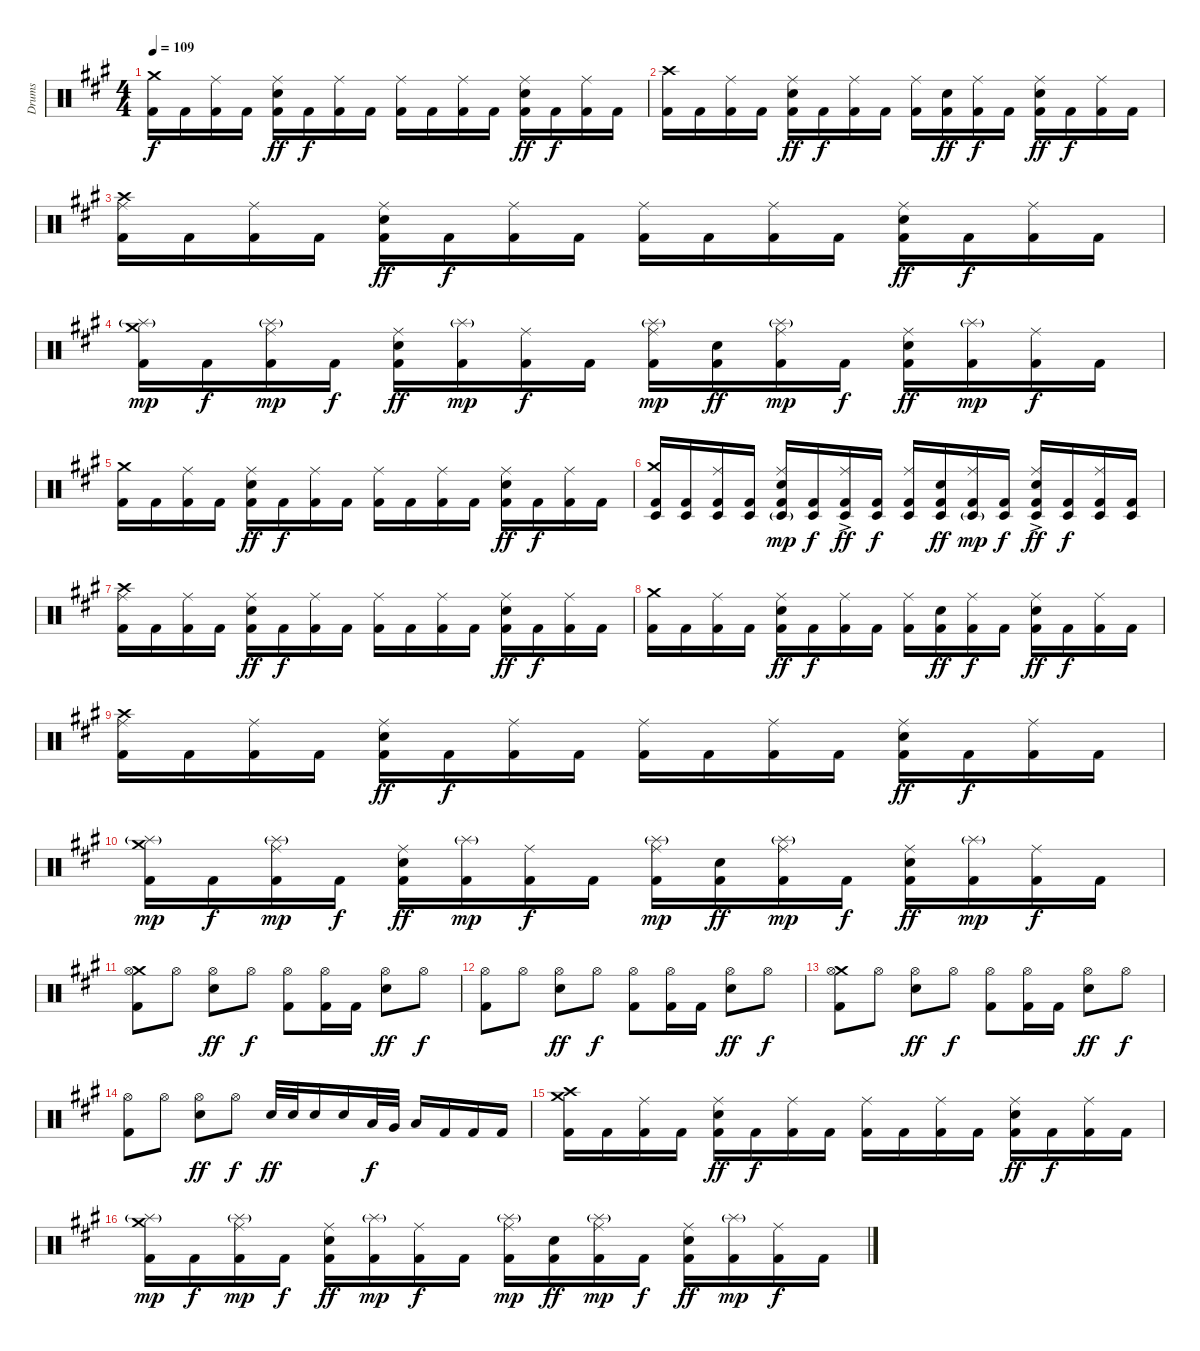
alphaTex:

\track ("Drums" "Drums") {instrument percussion}
\staff {score}
\articulation defaults
\ts (4 4)
\tempo 109
\clef neutral
\ks f#minor
("Crash medium (hit)" "Kick (hit) 2").16{dy f} "Kick (hit) 2".16 ("Ride (middle)" "Kick (hit) 2").16 "Kick (hit) 2".16 ("Ride (middle)" "Electric Snare (hit)" "Kick (hit) 2").16{dy ff} "Kick (hit) 2".16{dy f} ("Ride (middle)" "Kick (hit) 2").16 "Kick (hit) 2".16 ("Ride (middle)" "Kick (hit) 2").16 "Kick (hit) 2".16 ("Ride (middle)" "Kick (hit) 2").16 "Kick (hit) 2".16 ("Ride (middle)" "Electric Snare (hit)" "Kick (hit) 2").16{dy ff} "Kick (hit) 2".16{dy f} ("Ride (middle)" "Kick (hit) 2").16 "Kick (hit) 2".16 |
("Crash high (hit)" "Kick (hit) 2").16 "Kick (hit) 2".16 ("Ride (middle)" "Kick (hit) 2").16 "Kick (hit) 2".16 ("Ride (middle)" "Electric Snare (hit)" "Kick (hit) 2").16{dy ff} "Kick (hit) 2".16{dy f} ("Ride (middle)" "Kick (hit) 2").16 "Kick (hit) 2".16 ("Ride (middle)" "Kick (hit) 2").16 ("Electric Snare (hit)" "Kick (hit) 2").16{dy ff} ("Ride (middle)" "Kick (hit) 2").16{dy f} "Kick (hit) 2".16 ("Ride (middle)" "Electric Snare (hit)" "Kick (hit) 2").16{dy ff} "Kick (hit) 2".16{dy f} ("Ride (middle)" "Kick (hit) 2").16 "Kick (hit) 2".16 |
("Ride (middle)" "Crash high (hit)" "Kick (hit) 2").16 "Kick (hit) 2".16 ("Ride (middle)" "Kick (hit) 2").16 "Kick (hit) 2".16 ("Ride (middle)" "Electric Snare (hit)" "Kick (hit) 2").16{dy ff} "Kick (hit) 2".16{dy f} ("Ride (middle)" "Kick (hit) 2").16 "Kick (hit) 2".16 ("Ride (middle)" "Kick (hit) 2").16 "Kick (hit) 2".16 ("Ride (middle)" "Kick (hit) 2").16 "Kick (hit) 2".16 ("Ride (middle)" "Electric Snare (hit)" "Kick (hit) 2").16{dy ff} "Kick (hit) 2".16{dy f} ("Ride (middle)" "Kick (hit) 2").16 "Kick (hit) 2".16 |
("Crash medium (hit)" "Splash (hit)"{g} "Kick (hit) 2").16{dy mp} "Kick (hit) 2".16{dy f} ("Ride (middle)" "Splash (hit)"{g} "Kick (hit) 2").16{dy mp} "Kick (hit) 2".16{dy f} ("Ride (middle)" "Electric Snare (hit)" "Kick (hit) 2").16{dy ff} ("Splash (hit)"{g} "Kick (hit) 2").16{dy mp} ("Ride (middle)" "Kick (hit) 2").16{dy f} "Kick (hit) 2".16 ("Ride (middle)" "Splash (hit)"{g} "Kick (hit) 2").16{dy mp} ("Electric Snare (hit)" "Kick (hit) 2").16{dy ff} ("Ride (middle)" "Splash (hit)"{g} "Kick (hit) 2").16{dy mp} "Kick (hit) 2".16{dy f} ("Ride (middle)" "Electric Snare (hit)" "Kick (hit) 2").16{dy ff} ("Splash (hit)"{g} "Kick (hit) 2").16{dy mp} ("Ride (middle)" "Kick (hit) 2").16{dy f} "Kick (hit) 2".16 |
("Crash medium (hit)" "Kick (hit) 2").16 "Kick (hit) 2".16 ("Ride (middle)" "Kick (hit) 2").16 "Kick (hit) 2".16 ("Ride (middle)" "Electric Snare (hit)" "Kick (hit) 2").16{dy ff} "Kick (hit) 2".16{dy f} ("Ride (middle)" "Kick (hit) 2").16 "Kick (hit) 2".16 ("Ride (middle)" "Kick (hit) 2").16 "Kick (hit) 2".16 ("Ride (middle)" "Kick (hit) 2").16 "Kick (hit) 2".16 ("Ride (middle)" "Electric Snare (hit)" "Kick (hit) 2").16{dy ff} "Kick (hit) 2".16{dy f} ("Ride (middle)" "Kick (hit) 2").16 "Kick (hit) 2".16 |
("Crash medium (hit)" "Timbale low (hit)" "Kick (hit) 2").16 ("Timbale low (hit)" "Kick (hit) 2").16 ("Ride (middle)" "Timbale low (hit)" "Kick (hit) 2").16 ("Timbale low (hit)" "Kick (hit) 2").16 ("Ride (middle)" "Electric Snare (hit)" "Timbale low (hit)"{g} "Kick (hit) 2").16{dy mp} ("Timbale low (hit)" "Kick (hit) 2").16{dy f} ("Ride (middle)" "Timbale low (hit)"{ac} "Kick (hit) 2").16{dy ff} ("Timbale low (hit)" "Kick (hit) 2").16{dy f} ("Ride (middle)" "Timbale low (hit)" "Kick (hit) 2").16 ("Electric Snare (hit)" "Timbale low (hit)" "Kick (hit) 2").16{dy ff} ("Ride (middle)" "Timbale low (hit)"{g} "Kick (hit) 2").16{dy mp} ("Timbale low (hit)" "Kick (hit) 2").16{dy f} ("Ride (middle)" "Electric Snare (hit)" "Timbale low (hit)"{ac} "Kick (hit) 2").16{dy ff} ("Timbale low (hit)" "Kick (hit) 2").16{dy f} ("Ride (middle)" "Timbale low (hit)" "Kick (hit) 2").16 ("Timbale low (hit)" "Kick (hit) 2").16 |
("Ride (middle)" "Crash high (hit)" "Kick (hit) 2").16 "Kick (hit) 2".16 ("Ride (middle)" "Kick (hit) 2").16 "Kick (hit) 2".16 ("Ride (middle)" "Electric Snare (hit)" "Kick (hit) 2").16{dy ff} "Kick (hit) 2".16{dy f} ("Ride (middle)" "Kick (hit) 2").16 "Kick (hit) 2".16 ("Ride (middle)" "Kick (hit) 2").16 "Kick (hit) 2".16 ("Ride (middle)" "Kick (hit) 2").16 "Kick (hit) 2".16 ("Ride (middle)" "Electric Snare (hit)" "Kick (hit) 2").16{dy ff} "Kick (hit) 2".16{dy f} ("Ride (middle)" "Kick (hit) 2").16 "Kick (hit) 2".16 |
("Crash medium (hit)" "Kick (hit) 2").16 "Kick (hit) 2".16 ("Ride (middle)" "Kick (hit) 2").16 "Kick (hit) 2".16 ("Ride (middle)" "Electric Snare (hit)" "Kick (hit) 2").16{dy ff} "Kick (hit) 2".16{dy f} ("Ride (middle)" "Kick (hit) 2").16 "Kick (hit) 2".16 ("Ride (middle)" "Kick (hit) 2").16 ("Electric Snare (hit)" "Kick (hit) 2").16{dy ff} ("Ride (middle)" "Kick (hit) 2").16{dy f} "Kick (hit) 2".16 ("Ride (middle)" "Electric Snare (hit)" "Kick (hit) 2").16{dy ff} "Kick (hit) 2".16{dy f} ("Ride (middle)" "Kick (hit) 2").16 "Kick (hit) 2".16 |
("Ride (middle)" "Crash high (hit)" "Kick (hit) 2").16 "Kick (hit) 2".16 ("Ride (middle)" "Kick (hit) 2").16 "Kick (hit) 2".16 ("Ride (middle)" "Electric Snare (hit)" "Kick (hit) 2").16{dy ff} "Kick (hit) 2".16{dy f} ("Ride (middle)" "Kick (hit) 2").16 "Kick (hit) 2".16 ("Ride (middle)" "Kick (hit) 2").16 "Kick (hit) 2".16 ("Ride (middle)" "Kick (hit) 2").16 "Kick (hit) 2".16 ("Ride (middle)" "Electric Snare (hit)" "Kick (hit) 2").16{dy ff} "Kick (hit) 2".16{dy f} ("Ride (middle)" "Kick (hit) 2").16 "Kick (hit) 2".16 |
("Crash medium (hit)" "Splash (hit)"{g} "Kick (hit) 2").16{dy mp} "Kick (hit) 2".16{dy f} ("Ride (middle)" "Splash (hit)"{g} "Kick (hit) 2").16{dy mp} "Kick (hit) 2".16{dy f} ("Ride (middle)" "Electric Snare (hit)" "Kick (hit) 2").16{dy ff} ("Splash (hit)"{g} "Kick (hit) 2").16{dy mp} ("Ride (middle)" "Kick (hit) 2").16{dy f} "Kick (hit) 2".16 ("Ride (middle)" "Splash (hit)"{g} "Kick (hit) 2").16{dy mp} ("Electric Snare (hit)" "Kick (hit) 2").16{dy ff} ("Ride (middle)" "Splash (hit)"{g} "Kick (hit) 2").16{dy mp} "Kick (hit) 2".16{dy f} ("Ride (middle)" "Electric Snare (hit)" "Kick (hit) 2").16{dy ff} ("Splash (hit)"{g} "Kick (hit) 2").16{dy mp} ("Ride (middle)" "Kick (hit) 2").16{dy f} "Kick (hit) 2".16 |
("Crash medium (hit)" "Hi-Hat (open)" "Kick (hit) 2").8 "Hi-Hat (open)".8 ("Hi-Hat (open)" "Electric Snare (hit)").8{dy ff} "Hi-Hat (open)".8{dy f} ("Hi-Hat (open)" "Kick (hit) 2").8 ("Hi-Hat (open)" "Kick (hit) 2").16 "Kick (hit) 2".16 ("Hi-Hat (open)" "Electric Snare (hit)").8{dy ff} "Hi-Hat (open)".8{dy f} |
("Hi-Hat (open)" "Kick (hit) 2").8 "Hi-Hat (open)".8 ("Hi-Hat (open)" "Electric Snare (hit)").8{dy ff} "Hi-Hat (open)".8{dy f} ("Hi-Hat (open)" "Kick (hit) 2").8 ("Hi-Hat (open)" "Kick (hit) 2").16 "Kick (hit) 2".16 ("Hi-Hat (open)" "Electric Snare (hit)").8{dy ff} "Hi-Hat (open)".8{dy f} |
("Crash medium (hit)" "Hi-Hat (open)" "Kick (hit) 2").8 "Hi-Hat (open)".8 ("Hi-Hat (open)" "Electric Snare (hit)").8{dy ff} "Hi-Hat (open)".8{dy f} ("Hi-Hat (open)" "Kick (hit) 2").8 ("Hi-Hat (open)" "Kick (hit) 2").16 "Kick (hit) 2".16 ("Hi-Hat (open)" "Electric Snare (hit)").8{dy ff} "Hi-Hat (open)".8{dy f} |
("Hi-Hat (open)" "Kick (hit) 2").8 "Hi-Hat (open)".8 ("Hi-Hat (open)" "Electric Snare (hit)").8{dy ff} "Hi-Hat (open)".8{dy f} "Electric Snare (hit)".32{dy ff} "Electric Snare (hit)".32 "Electric Snare (hit)".16 "Electric Snare (hit)".16 "Low Tom (hit)".32{dy f} "Very Low Tom (hit)".32 "Low Floor Tom (hit)".16 "Kick (hit) 2".16 "Kick (hit) 2".16 "Kick (hit) 2".16 |
("Crash medium (hit)" "Crash high (hit)" "Kick (hit) 2").16 "Kick (hit) 2".16 ("Ride (middle)" "Kick (hit) 2").16 "Kick (hit) 2".16 ("Ride (middle)" "Electric Snare (hit)" "Kick (hit) 2").16{dy ff} "Kick (hit) 2".16{dy f} ("Ride (middle)" "Kick (hit) 2").16 "Kick (hit) 2".16 ("Ride (middle)" "Kick (hit) 2").16 "Kick (hit) 2".16 ("Ride (middle)" "Kick (hit) 2").16 "Kick (hit) 2".16 ("Ride (middle)" "Electric Snare (hit)" "Kick (hit) 2").16{dy ff} "Kick (hit) 2".16{dy f} ("Ride (middle)" "Kick (hit) 2").16 "Kick (hit) 2".16 |
("Crash medium (hit)" "Splash (hit)"{g} "Kick (hit) 2").16{dy mp} "Kick (hit) 2".16{dy f} ("Ride (middle)" "Splash (hit)"{g} "Kick (hit) 2").16{dy mp} "Kick (hit) 2".16{dy f} ("Ride (middle)" "Electric Snare (hit)" "Kick (hit) 2").16{dy ff} ("Splash (hit)"{g} "Kick (hit) 2").16{dy mp} ("Ride (middle)" "Kick (hit) 2").16{dy f} "Kick (hit) 2".16 ("Ride (middle)" "Splash (hit)"{g} "Kick (hit) 2").16{dy mp} ("Electric Snare (hit)" "Kick (hit) 2").16{dy ff} ("Ride (middle)" "Splash (hit)"{g} "Kick (hit) 2").16{dy mp} "Kick (hit) 2".16{dy f} ("Ride (middle)" "Electric Snare (hit)" "Kick (hit) 2").16{dy ff} ("Splash (hit)"{g} "Kick (hit) 2").16{dy mp} ("Ride (middle)" "Kick (hit) 2").16{dy f} "Kick (hit) 2".16
